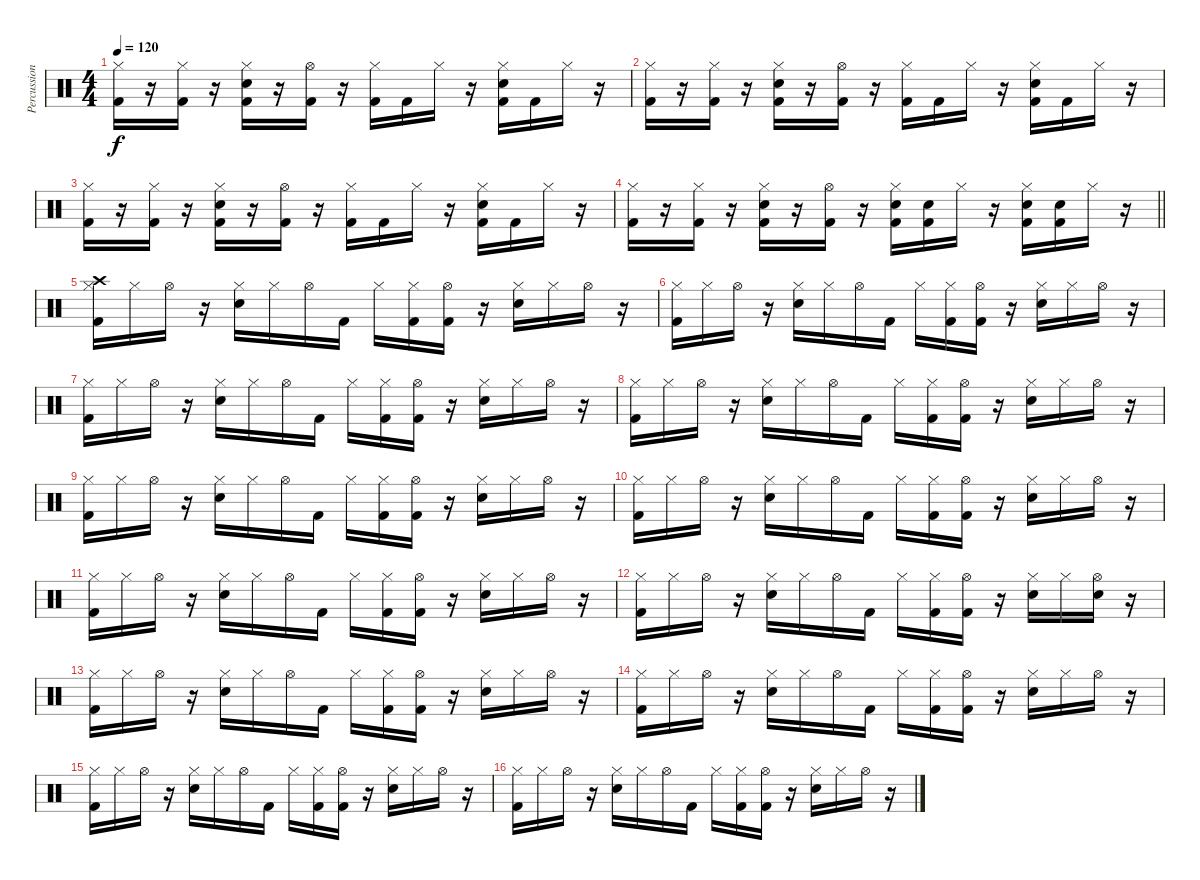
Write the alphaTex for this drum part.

\track ("Percussion" "Percussion") {instrument percussion}
\staff {score}
\articulation defaults
\ts (4 4)
\tempo 120
\clef neutral
\ks c
("Hi-Hat (closed)" "Kick (hit) 2").16{dy f} r.16 ("Hi-Hat (closed)" "Kick (hit) 2").16 r.16 ("Hi-Hat (closed)" "Snare (hit) 2" "Kick (hit) 2").16 r.16 ("Hi-Hat (open)" "Kick (hit) 2").16 r.16 ("Hi-Hat (closed)" "Kick (hit) 2").16 "Kick (hit) 2".16 "Hi-Hat (closed)".16 r.16 ("Hi-Hat (closed)" "Snare (hit) 2" "Kick (hit) 2").16 "Kick (hit) 2".16 "Hi-Hat (closed)".16 r.16 |
("Hi-Hat (closed)" "Kick (hit) 2").16 r.16 ("Hi-Hat (closed)" "Kick (hit) 2").16 r.16 ("Hi-Hat (closed)" "Snare (hit) 2" "Kick (hit) 2").16 r.16 ("Hi-Hat (open)" "Kick (hit) 2").16 r.16 ("Hi-Hat (closed)" "Kick (hit) 2").16 "Kick (hit) 2".16 "Hi-Hat (closed)".16 r.16 ("Hi-Hat (closed)" "Snare (hit) 2" "Kick (hit) 2").16 "Kick (hit) 2".16 "Hi-Hat (closed)".16 r.16 |
("Hi-Hat (closed)" "Kick (hit) 2").16 r.16 ("Hi-Hat (closed)" "Kick (hit) 2").16 r.16 ("Hi-Hat (closed)" "Snare (hit) 2" "Kick (hit) 2").16 r.16 ("Hi-Hat (open)" "Kick (hit) 2").16 r.16 ("Hi-Hat (closed)" "Kick (hit) 2").16 "Kick (hit) 2".16 "Hi-Hat (closed)".16 r.16 ("Hi-Hat (closed)" "Snare (hit) 2" "Kick (hit) 2").16 "Kick (hit) 2".16 "Hi-Hat (closed)".16 r.16 |
\barLineRight lightlight
("Hi-Hat (closed)" "Kick (hit) 2").16 r.16 ("Hi-Hat (closed)" "Kick (hit) 2").16 r.16 ("Hi-Hat (closed)" "Snare (hit) 2" "Kick (hit) 2").16 r.16 ("Hi-Hat (open)" "Kick (hit) 2").16 r.16 ("Hi-Hat (closed)" "Snare (hit) 2" "Kick (hit) 2").16 ("Snare (hit) 2" "Kick (hit) 2").16 "Hi-Hat (closed)".16 r.16 ("Hi-Hat (closed)" "Snare (hit) 2" "Kick (hit) 2").16 ("Snare (hit) 2" "Kick (hit) 2").16 "Hi-Hat (closed)".16 r.16 |
("Hi-Hat (closed)" "Crash high (hit)" "Kick (hit) 2").16 "Hi-Hat (closed)".16 "Hi-Hat (open)".16 r.16 ("Hi-Hat (closed)" "Snare (hit) 2").16 "Hi-Hat (closed)".16 "Hi-Hat (open)".16 "Kick (hit) 2".16 "Hi-Hat (closed)".16 ("Hi-Hat (closed)" "Kick (hit) 2").16 ("Hi-Hat (open)" "Kick (hit) 2").16 r.16 ("Hi-Hat (closed)" "Snare (hit) 2").16 "Hi-Hat (closed)".16 "Hi-Hat (open)".16 r.16 |
("Hi-Hat (closed)" "Kick (hit) 2").16 "Hi-Hat (closed)".16 "Hi-Hat (open)".16 r.16 ("Hi-Hat (closed)" "Snare (hit) 2").16 "Hi-Hat (closed)".16 "Hi-Hat (open)".16 "Kick (hit) 2".16 "Hi-Hat (closed)".16 ("Hi-Hat (closed)" "Kick (hit) 2").16 ("Hi-Hat (open)" "Kick (hit) 2").16 r.16 ("Hi-Hat (closed)" "Snare (hit) 2").16 "Hi-Hat (closed)".16 "Hi-Hat (open)".16 r.16 |
("Hi-Hat (closed)" "Kick (hit) 2").16 "Hi-Hat (closed)".16 "Hi-Hat (open)".16 r.16 ("Hi-Hat (closed)" "Snare (hit) 2").16 "Hi-Hat (closed)".16 "Hi-Hat (open)".16 "Kick (hit) 2".16 "Hi-Hat (closed)".16 ("Hi-Hat (closed)" "Kick (hit) 2").16 ("Hi-Hat (open)" "Kick (hit) 2").16 r.16 ("Hi-Hat (closed)" "Snare (hit) 2").16 "Hi-Hat (closed)".16 "Hi-Hat (open)".16 r.16 |
("Hi-Hat (closed)" "Kick (hit) 2").16 "Hi-Hat (closed)".16 "Hi-Hat (open)".16 r.16 ("Hi-Hat (closed)" "Snare (hit) 2").16 "Hi-Hat (closed)".16 "Hi-Hat (open)".16 "Kick (hit) 2".16 "Hi-Hat (closed)".16 ("Hi-Hat (closed)" "Kick (hit) 2").16 ("Hi-Hat (open)" "Kick (hit) 2").16 r.16 ("Hi-Hat (closed)" "Snare (hit) 2").16 "Hi-Hat (closed)".16 "Hi-Hat (open)".16 r.16 |
("Hi-Hat (closed)" "Kick (hit) 2").16 "Hi-Hat (closed)".16 "Hi-Hat (open)".16 r.16 ("Hi-Hat (closed)" "Snare (hit) 2").16 "Hi-Hat (closed)".16 "Hi-Hat (open)".16 "Kick (hit) 2".16 "Hi-Hat (closed)".16 ("Hi-Hat (closed)" "Kick (hit) 2").16 ("Hi-Hat (open)" "Kick (hit) 2").16 r.16 ("Hi-Hat (closed)" "Snare (hit) 2").16 "Hi-Hat (closed)".16 "Hi-Hat (open)".16 r.16 |
("Hi-Hat (closed)" "Kick (hit) 2").16 "Hi-Hat (closed)".16 "Hi-Hat (open)".16 r.16 ("Hi-Hat (closed)" "Snare (hit) 2").16 "Hi-Hat (closed)".16 "Hi-Hat (open)".16 "Kick (hit) 2".16 "Hi-Hat (closed)".16 ("Hi-Hat (closed)" "Kick (hit) 2").16 ("Hi-Hat (open)" "Kick (hit) 2").16 r.16 ("Hi-Hat (closed)" "Snare (hit) 2").16 "Hi-Hat (closed)".16 "Hi-Hat (open)".16 r.16 |
("Hi-Hat (closed)" "Kick (hit) 2").16 "Hi-Hat (closed)".16 "Hi-Hat (open)".16 r.16 ("Hi-Hat (closed)" "Snare (hit) 2").16 "Hi-Hat (closed)".16 "Hi-Hat (open)".16 "Kick (hit) 2".16 "Hi-Hat (closed)".16 ("Hi-Hat (closed)" "Kick (hit) 2").16 ("Hi-Hat (open)" "Kick (hit) 2").16 r.16 ("Hi-Hat (closed)" "Snare (hit) 2").16 "Hi-Hat (closed)".16 "Hi-Hat (open)".16 r.16 |
("Hi-Hat (closed)" "Kick (hit) 2").16 "Hi-Hat (closed)".16 "Hi-Hat (open)".16 r.16 ("Hi-Hat (closed)" "Snare (hit) 2").16 "Hi-Hat (closed)".16 "Hi-Hat (open)".16 "Kick (hit) 2".16 "Hi-Hat (closed)".16 ("Hi-Hat (closed)" "Kick (hit) 2").16 ("Hi-Hat (open)" "Kick (hit) 2").16 r.16 ("Hi-Hat (closed)" "Snare (hit) 2").16 "Hi-Hat (closed)".16 ("Hi-Hat (open)" "Snare (hit) 2").16 r.16 |
("Hi-Hat (closed)" "Kick (hit) 2").16 "Hi-Hat (closed)".16 "Hi-Hat (open)".16 r.16 ("Hi-Hat (closed)" "Snare (hit) 2").16 "Hi-Hat (closed)".16 "Hi-Hat (open)".16 "Kick (hit) 2".16 "Hi-Hat (closed)".16 ("Hi-Hat (closed)" "Kick (hit) 2").16 ("Hi-Hat (open)" "Kick (hit) 2").16 r.16 ("Hi-Hat (closed)" "Snare (hit) 2").16 "Hi-Hat (closed)".16 "Hi-Hat (open)".16 r.16 |
("Hi-Hat (closed)" "Kick (hit) 2").16 "Hi-Hat (closed)".16 "Hi-Hat (open)".16 r.16 ("Hi-Hat (closed)" "Snare (hit) 2").16 "Hi-Hat (closed)".16 "Hi-Hat (open)".16 "Kick (hit) 2".16 "Hi-Hat (closed)".16 ("Hi-Hat (closed)" "Kick (hit) 2").16 ("Hi-Hat (open)" "Kick (hit) 2").16 r.16 ("Hi-Hat (closed)" "Snare (hit) 2").16 "Hi-Hat (closed)".16 "Hi-Hat (open)".16 r.16 |
("Hi-Hat (closed)" "Kick (hit) 2").16 "Hi-Hat (closed)".16 "Hi-Hat (open)".16 r.16 ("Hi-Hat (closed)" "Snare (hit) 2").16 "Hi-Hat (closed)".16 "Hi-Hat (open)".16 "Kick (hit) 2".16 "Hi-Hat (closed)".16 ("Hi-Hat (closed)" "Kick (hit) 2").16 ("Hi-Hat (open)" "Kick (hit) 2").16 r.16 ("Hi-Hat (closed)" "Snare (hit) 2").16 "Hi-Hat (closed)".16 "Hi-Hat (open)".16 r.16 |
("Hi-Hat (closed)" "Kick (hit) 2").16 "Hi-Hat (closed)".16 "Hi-Hat (open)".16 r.16 ("Hi-Hat (closed)" "Snare (hit) 2").16 "Hi-Hat (closed)".16 "Hi-Hat (open)".16 "Kick (hit) 2".16 "Hi-Hat (closed)".16 ("Hi-Hat (closed)" "Kick (hit) 2").16 ("Hi-Hat (open)" "Kick (hit) 2").16 r.16 ("Hi-Hat (closed)" "Snare (hit) 2").16 "Hi-Hat (closed)".16 "Hi-Hat (open)".16 r.16
